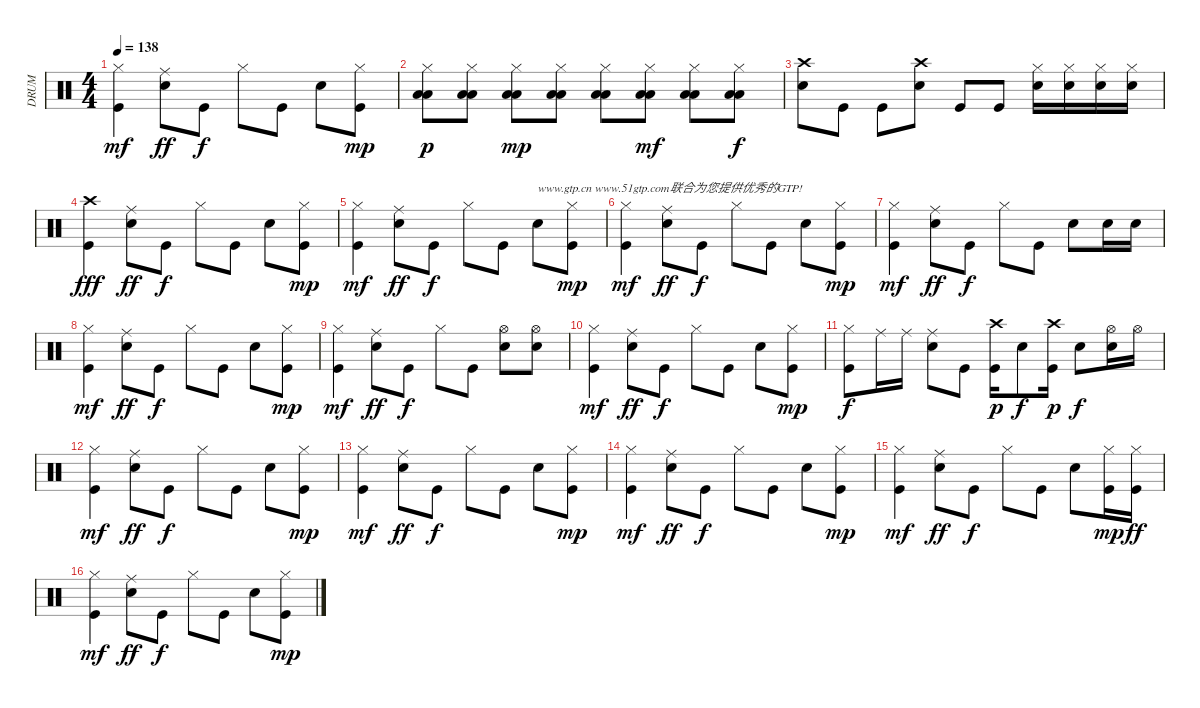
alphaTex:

\track ("DRUM" "DRUM") {instrument percussion}
\staff {score}
\articulation defaults
\ts (4 4)
\tempo 138
\clef neutral
\ks c
("Hi-Hat (closed)" "Kick (hit)").4{dy mf} ("Ride (middle)" "Snare (hit) 2").8{dy ff} "Kick (hit)".8{dy f} "Hi-Hat (closed)".8 "Kick (hit)".8 "Snare (hit) 2".8 ("Hi-Hat (closed)" "Kick (hit)").8{dy mp} |
("Hi-Hat (closed)" "Low Tom (hit)" "Low Floor Tom (hit)").8{dy p} ("Hi-Hat (closed)" "Low Tom (hit)" "Low Floor Tom (hit)").8 ("Low Tom (hit)" "Hi-Hat (closed)" "Low Floor Tom (hit)").8{dy mp} ("Low Tom (hit)" "Hi-Hat (closed)" "Low Floor Tom (hit)").8 ("Low Tom (hit)" "Hi-Hat (closed)" "Low Floor Tom (hit)").8 ("Low Tom (hit)" "Hi-Hat (closed)" "Low Floor Tom (hit)").8{dy mf} ("Hi-Hat (closed)" "Low Tom (hit)" "Low Floor Tom (hit)").8 ("Low Tom (hit)" "Hi-Hat (closed)" "Low Floor Tom (hit)").8{dy f} |
("Snare (hit) 2" "Crash high (hit)").8 "Kick (hit)".8 "Kick (hit)".8 ("Snare (hit) 2" "Crash high (hit)").8 "Kick (hit)".8 "Kick (hit)".8 ("Snare (hit) 2" "Hi-Hat (closed)").16 ("Snare (hit) 2" "Hi-Hat (closed)").16 ("Snare (hit) 2" "Hi-Hat (closed)").16 ("Snare (hit) 2" "Hi-Hat (closed)").16 |
("Crash high (hit)" "Kick (hit)").4{dy fff} ("Ride (middle)" "Snare (hit) 2").8{dy ff} "Kick (hit)".8{dy f} "Hi-Hat (closed)".8 "Kick (hit)".8 "Snare (hit) 2".8 ("Hi-Hat (closed)" "Kick (hit)").8{dy mp} |
("Hi-Hat (closed)" "Kick (hit)").4{dy mf} ("Ride (middle)" "Snare (hit) 2").8{dy ff} "Kick (hit)".8{dy f} "Hi-Hat (closed)".8 "Kick (hit)".8 "Snare (hit) 2".8{txt "www.gtp.cn www.51gtp.com联合为您提供优秀的GTP!"} ("Hi-Hat (closed)" "Kick (hit)").8{dy mp} |
("Hi-Hat (closed)" "Kick (hit)").4{dy mf} ("Ride (middle)" "Snare (hit) 2").8{dy ff} "Kick (hit)".8{dy f} "Hi-Hat (closed)".8 "Kick (hit)".8 "Snare (hit) 2".8 ("Hi-Hat (closed)" "Kick (hit)").8{dy mp} |
("Hi-Hat (closed)" "Kick (hit)").4{dy mf} ("Ride (middle)" "Snare (hit) 2").8{dy ff} "Kick (hit)".8{dy f} "Hi-Hat (closed)".8 "Kick (hit)".8 "Snare (hit) 2".8 "Snare (hit) 2".16 "Snare (hit) 2".16 |
("Hi-Hat (closed)" "Kick (hit)").4{dy mf} ("Ride (middle)" "Snare (hit) 2").8{dy ff} "Kick (hit)".8{dy f} "Hi-Hat (closed)".8 "Kick (hit)".8 "Snare (hit) 2".8 ("Hi-Hat (closed)" "Kick (hit)").8{dy mp} |
("Hi-Hat (closed)" "Kick (hit)").4{dy mf} ("Ride (middle)" "Snare (hit) 2").8{dy ff} "Kick (hit)".8{dy f} "Hi-Hat (closed)".8 "Kick (hit)".8 ("Snare (hit) 2" "Hi-Hat (open)").8 ("Snare (hit) 2" "Hi-Hat (open)").8 |
("Hi-Hat (closed)" "Kick (hit)").4{dy mf} ("Ride (middle)" "Snare (hit) 2").8{dy ff} "Kick (hit)".8{dy f} "Hi-Hat (closed)".8 "Kick (hit)".8 "Snare (hit) 2".8 ("Hi-Hat (closed)" "Kick (hit)").8{dy mp} |
("Hi-Hat (closed)" "Kick (hit)").8{dy f} "Ride (middle)".16 "Ride (middle)".16 ("Snare (hit) 2" "Ride (middle)").8 "Kick (hit)".8 ("Kick (hit)" "Crash high (hit)").16{dy p} "Snare (hit) 2".8{dy f} ("Kick (hit)" "Crash high (hit)").16{dy p} "Snare (hit) 2".8{dy f} ("Snare (hit) 2" "Hi-Hat (open)").16 "Hi-Hat (open)".16 |
("Hi-Hat (closed)" "Kick (hit)").4{dy mf} ("Ride (middle)" "Snare (hit) 2").8{dy ff} "Kick (hit)".8{dy f} "Hi-Hat (closed)".8 "Kick (hit)".8 "Snare (hit) 2".8 ("Hi-Hat (closed)" "Kick (hit)").8{dy mp} |
("Hi-Hat (closed)" "Kick (hit)").4{dy mf} ("Ride (middle)" "Snare (hit) 2").8{dy ff} "Kick (hit)".8{dy f} "Hi-Hat (closed)".8 "Kick (hit)".8 "Snare (hit) 2".8 ("Hi-Hat (closed)" "Kick (hit)").8{dy mp} |
("Hi-Hat (closed)" "Kick (hit)").4{dy mf} ("Ride (middle)" "Snare (hit) 2").8{dy ff} "Kick (hit)".8{dy f} "Hi-Hat (closed)".8 "Kick (hit)".8 "Snare (hit) 2".8 ("Hi-Hat (closed)" "Kick (hit)").8{dy mp} |
("Hi-Hat (closed)" "Kick (hit)").4{dy mf} ("Ride (middle)" "Snare (hit) 2").8{dy ff} "Kick (hit)".8{dy f} "Hi-Hat (closed)".8 "Kick (hit)".8 "Snare (hit) 2".8 ("Hi-Hat (closed)" "Kick (hit)").16{dy mp} ("Hi-Hat (closed)" "Kick (hit)").16{dy ff} |
("Hi-Hat (closed)" "Kick (hit)").4{dy mf} ("Ride (middle)" "Snare (hit) 2").8{dy ff} "Kick (hit)".8{dy f} "Hi-Hat (closed)".8 "Kick (hit)".8 "Snare (hit) 2".8 ("Hi-Hat (closed)" "Kick (hit)").8{dy mp}
